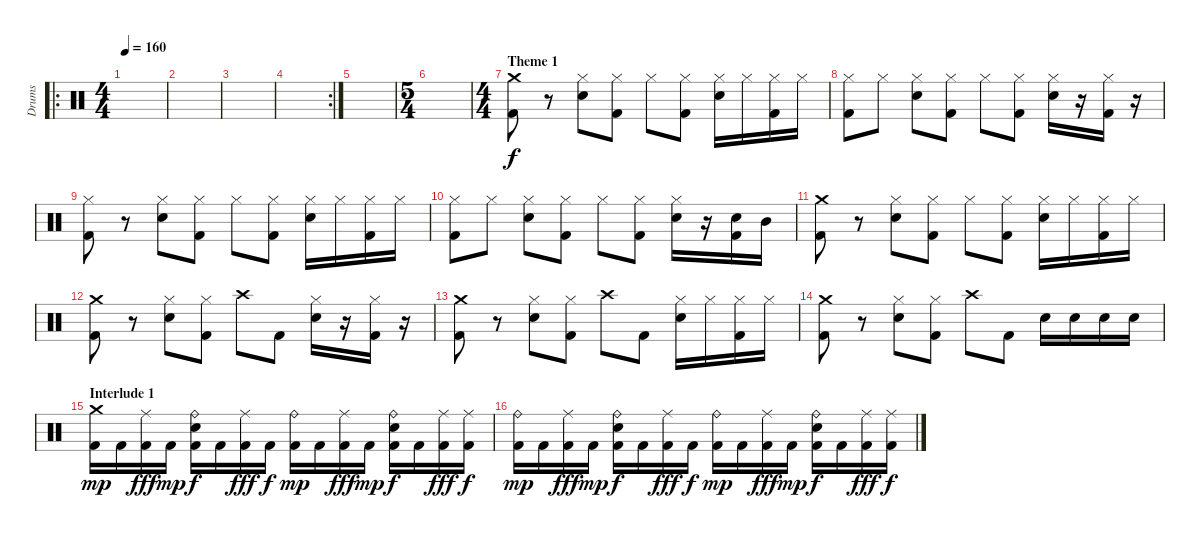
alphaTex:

\track ("Drums" "Drums") {instrument percussion}
\staff {score}
\articulation defaults
\ro
\ts (4 4)
\tempo 160
\clef neutral
\ks c
|
|
|
\rc 2
|
|
\ts (5 4)
|
\ts (4 4)
\section ("" "Theme 1")
("Kick (hit) 2" "Crash medium (hit)").8 r.8 ("Electric Snare (hit)" "Hi-Hat (closed)").8 ("Kick (hit) 2" "Hi-Hat (closed)").8 "Hi-Hat (closed)".8 ("Kick (hit) 2" "Hi-Hat (closed)").8 ("Electric Snare (hit)" "Hi-Hat (closed)").16 "Hi-Hat (closed)".16 ("Kick (hit) 2" "Hi-Hat (closed)").16 "Hi-Hat (closed)".16 |
("Kick (hit) 2" "Hi-Hat (closed)").8 "Hi-Hat (closed)".8 ("Electric Snare (hit)" "Hi-Hat (closed)").8 ("Kick (hit) 2" "Hi-Hat (closed)").8 "Hi-Hat (closed)".8 ("Kick (hit) 2" "Hi-Hat (closed)").8 ("Electric Snare (hit)" "Hi-Hat (closed)").16 r.16 ("Kick (hit) 2" "Hi-Hat (closed)").16 r.16 |
("Kick (hit) 2" "Hi-Hat (closed)").8 r.8 ("Electric Snare (hit)" "Hi-Hat (closed)").8 ("Kick (hit) 2" "Hi-Hat (closed)").8 "Hi-Hat (closed)".8 ("Kick (hit) 2" "Hi-Hat (closed)").8 ("Electric Snare (hit)" "Hi-Hat (closed)").16 "Hi-Hat (closed)".16 ("Kick (hit) 2" "Hi-Hat (closed)").16 "Hi-Hat (closed)".16 |
("Kick (hit) 2" "Hi-Hat (closed)").8 "Hi-Hat (closed)".8 ("Electric Snare (hit)" "Hi-Hat (closed)").8 ("Kick (hit) 2" "Hi-Hat (closed)").8 "Hi-Hat (closed)".8 ("Kick (hit) 2" "Hi-Hat (closed)").8 ("Electric Snare (hit)" "Hi-Hat (closed)").16 r.16 ("Kick (hit) 2" "Snare (hit) 2").16 "Mid Tom (hit)".16 |
("Kick (hit) 2" "Crash medium (hit)").8 r.8 ("Electric Snare (hit)" "Hi-Hat (closed)").8 ("Kick (hit) 2" "Hi-Hat (closed)").8 "Hi-Hat (closed)".8 ("Kick (hit) 2" "Hi-Hat (closed)").8 ("Electric Snare (hit)" "Hi-Hat (closed)").16 "Hi-Hat (closed)".16 ("Kick (hit) 2" "Hi-Hat (closed)").16 "Hi-Hat (closed)".16 |
("Kick (hit) 2" "Crash medium (hit)").8 r.8 ("Electric Snare (hit)" "Hi-Hat (closed)").8 ("Kick (hit) 2" "Hi-Hat (closed)").8 "Crash high (hit)".8 "Kick (hit) 2".8 ("Electric Snare (hit)" "Hi-Hat (closed)").16 r.16 ("Kick (hit) 2" "Hi-Hat (closed)").16 r.16 |
("Kick (hit) 2" "Crash medium (hit)").8 r.8 ("Electric Snare (hit)" "Hi-Hat (closed)").8 ("Kick (hit) 2" "Hi-Hat (closed)").8 "Crash high (hit)".8 "Kick (hit) 2".8 ("Electric Snare (hit)" "Hi-Hat (closed)").16 "Hi-Hat (closed)".16 ("Kick (hit) 2" "Hi-Hat (closed)").16 "Hi-Hat (closed)".16 |
("Kick (hit) 2" "Crash medium (hit)").8 r.8 ("Electric Snare (hit)" "Hi-Hat (closed)").8 ("Kick (hit) 2" "Hi-Hat (closed)").8 "Crash high (hit)".8 "Kick (hit) 2".8 "Electric Snare (hit)".16 "Electric Snare (hit)".16 "Snare (hit) 2".16 "Snare (hit) 2".16 |
\section ("" "Interlude 1")
("Kick (hit) 2" "Crash medium (hit)").16{dy mp} "Kick (hit) 2".16 ("Kick (hit) 2" "Ride (middle)").16{dy fff} "Kick (hit) 2".16{dy mp} ("Kick (hit) 2" "Electric Snare (hit)" "Ride (bell)").16{dy f} "Kick (hit) 2".16 ("Kick (hit) 2" "Ride (middle)").16{dy fff} "Kick (hit) 2".16{dy f} ("Kick (hit) 2" "Ride (bell)").16{dy mp} "Kick (hit) 2".16 ("Kick (hit) 2" "Ride (middle)").16{dy fff} "Kick (hit) 2".16{dy mp} ("Kick (hit) 2" "Electric Snare (hit)" "Ride (bell)").16{dy f} "Kick (hit) 2".16 ("Kick (hit) 2" "Ride (middle)").16{dy fff} ("Kick (hit) 2" "Ride (middle)").16{dy f} |
("Kick (hit) 2" "Ride (bell)").16{dy mp} "Kick (hit) 2".16 ("Kick (hit) 2" "Ride (middle)").16{dy fff} "Kick (hit) 2".16{dy mp} ("Kick (hit) 2" "Electric Snare (hit)" "Ride (bell)").16{dy f} "Kick (hit) 2".16 ("Kick (hit) 2" "Ride (middle)").16{dy fff} "Kick (hit) 2".16{dy f} ("Kick (hit) 2" "Ride (bell)").16{dy mp} "Kick (hit) 2".16 ("Kick (hit) 2" "Ride (middle)").16{dy fff} "Kick (hit) 2".16{dy mp} ("Kick (hit) 2" "Electric Snare (hit)" "Ride (bell)").16{dy f} "Kick (hit) 2".16 ("Kick (hit) 2" "Ride (middle)").16{dy fff} ("Kick (hit) 2" "Ride (middle)").16{dy f}
